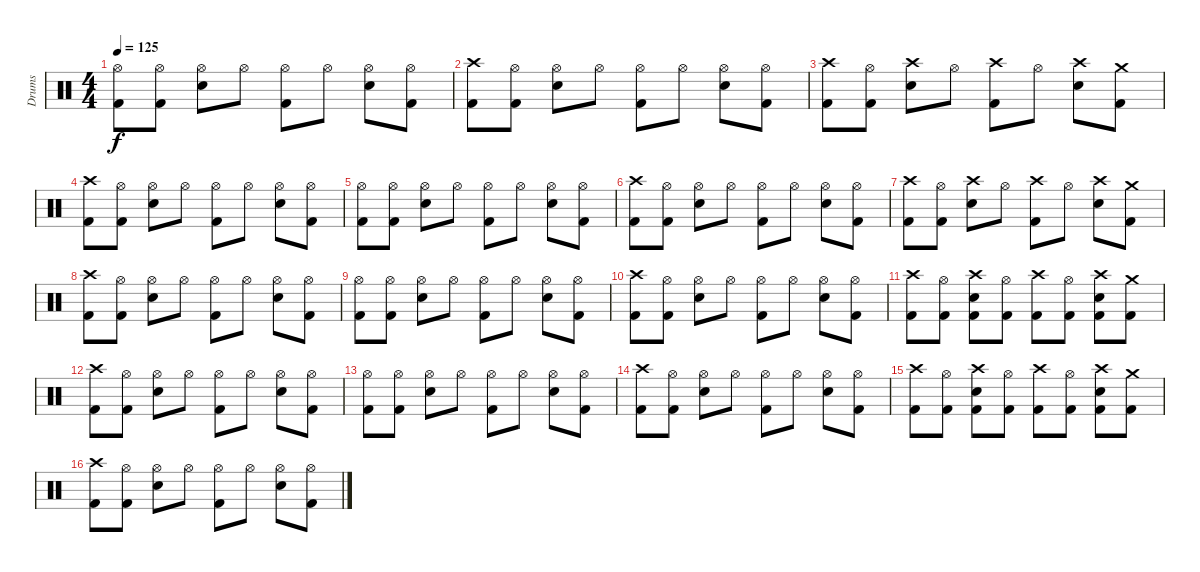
\track ("Drums" "Drums") {instrument percussion}
\staff {score}
\articulation defaults
\ts (4 4)
\tempo 125
\clef neutral
\ks c
("Hi-Hat (open)" "Kick (hit) 2").8{dy f} ("Hi-Hat (open)" "Kick (hit) 2").8 ("Hi-Hat (open)" "Electric Snare (hit)").8 "Hi-Hat (open)".8 ("Hi-Hat (open)" "Kick (hit) 2").8 "Hi-Hat (open)".8 ("Hi-Hat (open)" "Electric Snare (hit)").8 ("Hi-Hat (open)" "Kick (hit) 2").8 |
("Crash high (hit)" "Kick (hit) 2").8 ("Hi-Hat (open)" "Kick (hit) 2").8 ("Hi-Hat (open)" "Electric Snare (hit)").8 "Hi-Hat (open)".8 ("Hi-Hat (open)" "Kick (hit) 2").8 "Hi-Hat (open)".8 ("Hi-Hat (open)" "Electric Snare (hit)").8 ("Hi-Hat (open)" "Kick (hit) 2").8 |
("Crash high (hit)" "Kick (hit) 2").8 ("Hi-Hat (open)" "Kick (hit) 2").8 ("Crash high (hit)" "Electric Snare (hit)").8 "Hi-Hat (open)".8 ("Crash high (hit)" "Kick (hit) 2").8 "Hi-Hat (open)".8 ("Crash high (hit)" "Electric Snare (hit)").8 ("Crash medium (hit)" "Kick (hit) 2").8 |
("Crash high (hit)" "Kick (hit) 2").8 ("Hi-Hat (open)" "Kick (hit) 2").8 ("Hi-Hat (open)" "Electric Snare (hit)").8 "Hi-Hat (open)".8 ("Hi-Hat (open)" "Kick (hit) 2").8 "Hi-Hat (open)".8 ("Hi-Hat (open)" "Electric Snare (hit)").8 ("Hi-Hat (open)" "Kick (hit) 2").8 |
("Hi-Hat (open)" "Kick (hit) 2").8 ("Hi-Hat (open)" "Kick (hit) 2").8 ("Hi-Hat (open)" "Electric Snare (hit)").8 "Hi-Hat (open)".8 ("Hi-Hat (open)" "Kick (hit) 2").8 "Hi-Hat (open)".8 ("Hi-Hat (open)" "Electric Snare (hit)").8 ("Hi-Hat (open)" "Kick (hit) 2").8 |
("Crash high (hit)" "Kick (hit) 2").8 ("Hi-Hat (open)" "Kick (hit) 2").8 ("Hi-Hat (open)" "Electric Snare (hit)").8 "Hi-Hat (open)".8 ("Hi-Hat (open)" "Kick (hit) 2").8 "Hi-Hat (open)".8 ("Hi-Hat (open)" "Electric Snare (hit)").8 ("Hi-Hat (open)" "Kick (hit) 2").8 |
("Crash high (hit)" "Kick (hit) 2").8 ("Hi-Hat (open)" "Kick (hit) 2").8 ("Crash high (hit)" "Electric Snare (hit)").8 "Hi-Hat (open)".8 ("Crash high (hit)" "Kick (hit) 2").8 "Hi-Hat (open)".8 ("Crash high (hit)" "Electric Snare (hit)").8 ("Crash medium (hit)" "Kick (hit) 2").8 |
("Crash high (hit)" "Kick (hit) 2").8 ("Hi-Hat (open)" "Kick (hit) 2").8 ("Hi-Hat (open)" "Electric Snare (hit)").8 "Hi-Hat (open)".8 ("Hi-Hat (open)" "Kick (hit) 2").8 "Hi-Hat (open)".8 ("Hi-Hat (open)" "Electric Snare (hit)").8 ("Hi-Hat (open)" "Kick (hit) 2").8 |
("Hi-Hat (open)" "Kick (hit) 2").8 ("Hi-Hat (open)" "Kick (hit) 2").8 ("Hi-Hat (open)" "Electric Snare (hit)").8 "Hi-Hat (open)".8 ("Hi-Hat (open)" "Kick (hit) 2").8 "Hi-Hat (open)".8 ("Hi-Hat (open)" "Electric Snare (hit)").8 ("Hi-Hat (open)" "Kick (hit) 2").8 |
("Crash high (hit)" "Kick (hit) 2").8 ("Hi-Hat (open)" "Kick (hit) 2").8 ("Hi-Hat (open)" "Electric Snare (hit)").8 "Hi-Hat (open)".8 ("Hi-Hat (open)" "Kick (hit) 2").8 "Hi-Hat (open)".8 ("Hi-Hat (open)" "Electric Snare (hit)").8 ("Hi-Hat (open)" "Kick (hit) 2").8 |
("Crash high (hit)" "Kick (hit) 2").8 ("Hi-Hat (open)" "Kick (hit) 2").8 ("Crash high (hit)" "Electric Snare (hit)" "Kick (hit) 2").8 ("Hi-Hat (open)" "Kick (hit) 2").8 ("Crash high (hit)" "Kick (hit) 2").8 ("Hi-Hat (open)" "Kick (hit) 2").8 ("Crash high (hit)" "Electric Snare (hit)" "Kick (hit) 2").8 ("Crash medium (hit)" "Kick (hit) 2").8 |
("Crash high (hit)" "Kick (hit) 2").8 ("Hi-Hat (open)" "Kick (hit) 2").8 ("Hi-Hat (open)" "Electric Snare (hit)").8 "Hi-Hat (open)".8 ("Hi-Hat (open)" "Kick (hit) 2").8 "Hi-Hat (open)".8 ("Hi-Hat (open)" "Electric Snare (hit)").8 ("Hi-Hat (open)" "Kick (hit) 2").8 |
("Hi-Hat (open)" "Kick (hit) 2").8 ("Hi-Hat (open)" "Kick (hit) 2").8 ("Hi-Hat (open)" "Electric Snare (hit)").8 "Hi-Hat (open)".8 ("Hi-Hat (open)" "Kick (hit) 2").8 "Hi-Hat (open)".8 ("Hi-Hat (open)" "Electric Snare (hit)").8 ("Hi-Hat (open)" "Kick (hit) 2").8 |
("Crash high (hit)" "Kick (hit) 2").8 ("Hi-Hat (open)" "Kick (hit) 2").8 ("Hi-Hat (open)" "Electric Snare (hit)").8 "Hi-Hat (open)".8 ("Hi-Hat (open)" "Kick (hit) 2").8 "Hi-Hat (open)".8 ("Hi-Hat (open)" "Electric Snare (hit)").8 ("Hi-Hat (open)" "Kick (hit) 2").8 |
("Crash high (hit)" "Kick (hit) 2").8 ("Hi-Hat (open)" "Kick (hit) 2").8 ("Crash high (hit)" "Electric Snare (hit)" "Kick (hit) 2").8 ("Hi-Hat (open)" "Kick (hit) 2").8 ("Crash high (hit)" "Kick (hit) 2").8 ("Hi-Hat (open)" "Kick (hit) 2").8 ("Crash high (hit)" "Electric Snare (hit)" "Kick (hit) 2").8 ("Crash medium (hit)" "Kick (hit) 2").8 |
("Crash high (hit)" "Kick (hit) 2").8 ("Hi-Hat (open)" "Kick (hit) 2").8 ("Hi-Hat (open)" "Electric Snare (hit)").8 "Hi-Hat (open)".8 ("Hi-Hat (open)" "Kick (hit) 2").8 "Hi-Hat (open)".8 ("Hi-Hat (open)" "Electric Snare (hit)").8 ("Hi-Hat (open)" "Kick (hit) 2").8
